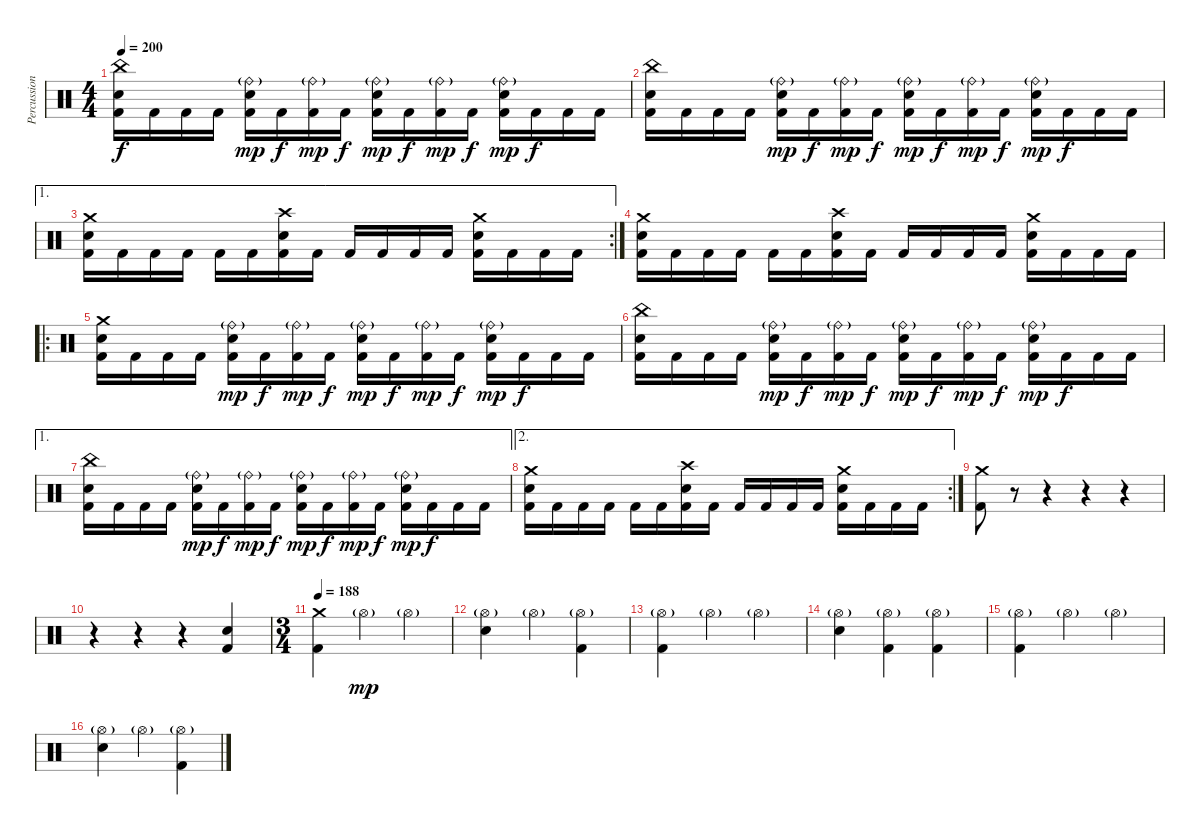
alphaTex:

\track ("Percussion" "Percussion") {instrument percussion}
\staff {score}
\articulation defaults
\ts (4 4)
\tempo 200
\clef neutral
\ks c
("China (hit)" "Electric Snare (hit)" "Kick (hit) 2").16{dy f} "Kick (hit) 2".16 "Kick (hit) 2".16 "Kick (hit) 2".16 ("Ride (bell)"{g} "Electric Snare (hit)" "Kick (hit) 2").16{dy mp} "Kick (hit) 2".16{dy f} ("Ride (bell)"{g} "Kick (hit) 2").16{dy mp} "Kick (hit) 2".16{dy f} ("Ride (bell)"{g} "Electric Snare (hit)" "Kick (hit) 2").16{dy mp} "Kick (hit) 2".16{dy f} ("Ride (bell)"{g} "Kick (hit) 2").16{dy mp} "Kick (hit) 2".16{dy f} ("Ride (bell)"{g} "Electric Snare (hit)" "Kick (hit) 2").16{dy mp} "Kick (hit) 2".16{dy f} "Kick (hit) 2".16 "Kick (hit) 2".16 |
("China (hit)" "Electric Snare (hit)" "Kick (hit) 2").16 "Kick (hit) 2".16 "Kick (hit) 2".16 "Kick (hit) 2".16 ("Ride (bell)"{g} "Electric Snare (hit)" "Kick (hit) 2").16{dy mp} "Kick (hit) 2".16{dy f} ("Ride (bell)"{g} "Kick (hit) 2").16{dy mp} "Kick (hit) 2".16{dy f} ("Ride (bell)"{g} "Electric Snare (hit)" "Kick (hit) 2").16{dy mp} "Kick (hit) 2".16{dy f} ("Ride (bell)"{g} "Kick (hit) 2").16{dy mp} "Kick (hit) 2".16{dy f} ("Ride (bell)"{g} "Electric Snare (hit)" "Kick (hit) 2").16{dy mp} "Kick (hit) 2".16{dy f} "Kick (hit) 2".16 "Kick (hit) 2".16 |
\ae 1
\rc 2
("Crash medium (hit)" "Electric Snare (hit)" "Kick (hit) 2").16 "Kick (hit) 2".16 "Kick (hit) 2".16 "Kick (hit) 2".16 "Kick (hit) 2".16 "Kick (hit) 2".16 ("Crash high (hit)" "Electric Snare (hit)" "Kick (hit) 2").16 "Kick (hit) 2".16 "Kick (hit) 2".16 "Kick (hit) 2".16 "Kick (hit) 2".16 "Kick (hit) 2".16 ("Crash medium (hit)" "Electric Snare (hit)" "Kick (hit) 2").16 "Kick (hit) 2".16 "Kick (hit) 2".16 "Kick (hit) 2".16 |
("Crash medium (hit)" "Electric Snare (hit)" "Kick (hit) 2").16 "Kick (hit) 2".16 "Kick (hit) 2".16 "Kick (hit) 2".16 "Kick (hit) 2".16 "Kick (hit) 2".16 ("Crash high (hit)" "Electric Snare (hit)" "Kick (hit) 2").16 "Kick (hit) 2".16 "Kick (hit) 2".16 "Kick (hit) 2".16 "Kick (hit) 2".16 "Kick (hit) 2".16 ("Crash medium (hit)" "Electric Snare (hit)" "Kick (hit) 2").16 "Kick (hit) 2".16 "Kick (hit) 2".16 "Kick (hit) 2".16 |
\ro
("Crash medium (hit)" "Electric Snare (hit)" "Kick (hit) 2").16 "Kick (hit) 2".16 "Kick (hit) 2".16 "Kick (hit) 2".16 ("Ride (bell)"{g} "Electric Snare (hit)" "Kick (hit) 2").16{dy mp} "Kick (hit) 2".16{dy f} ("Ride (bell)"{g} "Kick (hit) 2").16{dy mp} "Kick (hit) 2".16{dy f} ("Ride (bell)"{g} "Electric Snare (hit)" "Kick (hit) 2").16{dy mp} "Kick (hit) 2".16{dy f} ("Ride (bell)"{g} "Kick (hit) 2").16{dy mp} "Kick (hit) 2".16{dy f} ("Ride (bell)"{g} "Electric Snare (hit)" "Kick (hit) 2").16{dy mp} "Kick (hit) 2".16{dy f} "Kick (hit) 2".16 "Kick (hit) 2".16 |
("China (hit)" "Electric Snare (hit)" "Kick (hit) 2").16 "Kick (hit) 2".16 "Kick (hit) 2".16 "Kick (hit) 2".16 ("Ride (bell)"{g} "Electric Snare (hit)" "Kick (hit) 2").16{dy mp} "Kick (hit) 2".16{dy f} ("Ride (bell)"{g} "Kick (hit) 2").16{dy mp} "Kick (hit) 2".16{dy f} ("Ride (bell)"{g} "Electric Snare (hit)" "Kick (hit) 2").16{dy mp} "Kick (hit) 2".16{dy f} ("Ride (bell)"{g} "Kick (hit) 2").16{dy mp} "Kick (hit) 2".16{dy f} ("Ride (bell)"{g} "Electric Snare (hit)" "Kick (hit) 2").16{dy mp} "Kick (hit) 2".16{dy f} "Kick (hit) 2".16 "Kick (hit) 2".16 |
\ae 1
("China (hit)" "Electric Snare (hit)" "Kick (hit) 2").16 "Kick (hit) 2".16 "Kick (hit) 2".16 "Kick (hit) 2".16 ("Ride (bell)"{g} "Electric Snare (hit)" "Kick (hit) 2").16{dy mp} "Kick (hit) 2".16{dy f} ("Ride (bell)"{g} "Kick (hit) 2").16{dy mp} "Kick (hit) 2".16{dy f} ("Ride (bell)"{g} "Electric Snare (hit)" "Kick (hit) 2").16{dy mp} "Kick (hit) 2".16{dy f} ("Ride (bell)"{g} "Kick (hit) 2").16{dy mp} "Kick (hit) 2".16{dy f} ("Ride (bell)"{g} "Electric Snare (hit)" "Kick (hit) 2").16{dy mp} "Kick (hit) 2".16{dy f} "Kick (hit) 2".16 "Kick (hit) 2".16 |
\ae 2
\rc 2
("Crash medium (hit)" "Electric Snare (hit)" "Kick (hit) 2").16 "Kick (hit) 2".16 "Kick (hit) 2".16 "Kick (hit) 2".16 "Kick (hit) 2".16 "Kick (hit) 2".16 ("Crash high (hit)" "Electric Snare (hit)" "Kick (hit) 2").16 "Kick (hit) 2".16 "Kick (hit) 2".16 "Kick (hit) 2".16 "Kick (hit) 2".16 "Kick (hit) 2".16 ("Crash medium (hit)" "Electric Snare (hit)" "Kick (hit) 2").16 "Kick (hit) 2".16 "Kick (hit) 2".16 "Kick (hit) 2".16 |
("Crash medium (hit)" "Kick (hit) 2").8 r.8 r.4 r.4 r.4 |
r.4 r.4 r.4 ("Electric Snare (hit)" "Kick (hit) 2").4 |
\ts (3 4)
\tempo 188
("Crash medium (hit)" "Kick (hit) 2").4 "Hi-Hat (open)"{g}.4{dy mp} "Hi-Hat (open)"{g}.4 |
("Hi-Hat (open)"{g} "Electric Snare (hit)").4 "Hi-Hat (open)"{g}.4 ("Hi-Hat (open)"{g} "Kick (hit) 2").4 |
("Hi-Hat (open)"{g} "Kick (hit) 2").4 "Hi-Hat (open)"{g}.4 "Hi-Hat (open)"{g}.4 |
("Hi-Hat (open)"{g} "Electric Snare (hit)").4 ("Hi-Hat (open)"{g} "Kick (hit) 2").4 ("Hi-Hat (open)"{g} "Kick (hit) 2").4 |
("Hi-Hat (open)"{g} "Kick (hit) 2").4 "Hi-Hat (open)"{g}.4 "Hi-Hat (open)"{g}.4 |
("Hi-Hat (open)"{g} "Electric Snare (hit)").4 "Hi-Hat (open)"{g}.4 ("Hi-Hat (open)"{g} "Kick (hit) 2").4
